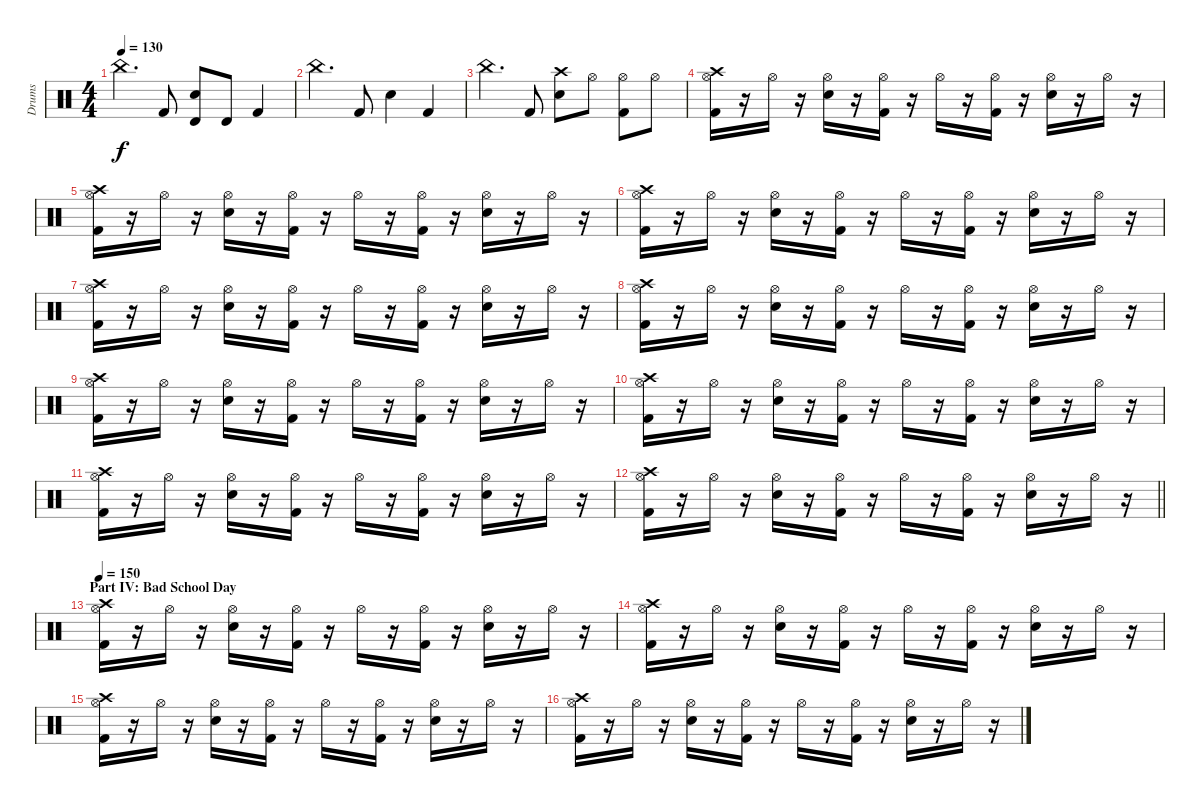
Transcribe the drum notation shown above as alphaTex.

\track ("Drums" "Drums") {instrument percussion}
\staff {score}
\articulation defaults
\ts (4 4)
\tempo 130
\clef neutral
\ks c "China (hit)".4{d dy f} "Kick (hit) 2".8
("Timbale high (hit)" "Snare (hit) 2").8 "Timbale high (hit)".8 "Kick (hit) 2".4 |
"China (hit)".4{d} "Kick (hit) 2".8 "Snare (hit) 2".4 "Kick (hit) 2".4 |
"China (hit)".4{d} "Kick (hit) 2".8 ("Crash high (hit)" "Snare (hit) 2").8 "Hi-Hat (open)".8 ("Hi-Hat (open)" "Kick (hit) 2").8 "Hi-Hat (open)".8 |
("Crash high (hit)" "Hi-Hat (open)" "Kick (hit) 2").16 r.16 "Hi-Hat (open)".16 r.16 ("Hi-Hat (open)" "Snare (hit) 2").16 r.16 ("Hi-Hat (open)" "Kick (hit) 2").16 r.16 "Hi-Hat (open)".16 r.16 ("Hi-Hat (open)" "Kick (hit) 2").16 r.16 ("Hi-Hat (open)" "Snare (hit) 2").16 r.16 "Hi-Hat (open)".16 r.16 |
("Crash high (hit)" "Hi-Hat (open)" "Kick (hit) 2").16 r.16 "Hi-Hat (open)".16 r.16 ("Hi-Hat (open)" "Snare (hit) 2").16 r.16 ("Hi-Hat (open)" "Kick (hit) 2").16 r.16 "Hi-Hat (open)".16 r.16 ("Hi-Hat (open)" "Kick (hit) 2").16 r.16 ("Hi-Hat (open)" "Snare (hit) 2").16 r.16 "Hi-Hat (open)".16 r.16 |
("Crash high (hit)" "Hi-Hat (open)" "Kick (hit) 2").16 r.16 "Hi-Hat (open)".16 r.16 ("Hi-Hat (open)" "Snare (hit) 2").16 r.16 ("Hi-Hat (open)" "Kick (hit) 2").16 r.16 "Hi-Hat (open)".16 r.16 ("Hi-Hat (open)" "Kick (hit) 2").16 r.16 ("Hi-Hat (open)" "Snare (hit) 2").16 r.16 "Hi-Hat (open)".16 r.16 |
("Crash high (hit)" "Hi-Hat (open)" "Kick (hit) 2").16 r.16 "Hi-Hat (open)".16 r.16 ("Hi-Hat (open)" "Snare (hit) 2").16 r.16 ("Hi-Hat (open)" "Kick (hit) 2").16 r.16 "Hi-Hat (open)".16 r.16 ("Hi-Hat (open)" "Kick (hit) 2").16 r.16 ("Hi-Hat (open)" "Snare (hit) 2").16 r.16 "Hi-Hat (open)".16 r.16 |
("Crash high (hit)" "Hi-Hat (open)" "Kick (hit) 2").16 r.16 "Hi-Hat (open)".16 r.16 ("Hi-Hat (open)" "Snare (hit) 2").16 r.16 ("Hi-Hat (open)" "Kick (hit) 2").16 r.16 "Hi-Hat (open)".16 r.16 ("Hi-Hat (open)" "Kick (hit) 2").16 r.16 ("Hi-Hat (open)" "Snare (hit) 2").16 r.16 "Hi-Hat (open)".16 r.16 |
("Crash high (hit)" "Hi-Hat (open)" "Kick (hit) 2").16 r.16 "Hi-Hat (open)".16 r.16 ("Hi-Hat (open)" "Snare (hit) 2").16 r.16 ("Hi-Hat (open)" "Kick (hit) 2").16 r.16 "Hi-Hat (open)".16 r.16 ("Hi-Hat (open)" "Kick (hit) 2").16 r.16 ("Hi-Hat (open)" "Snare (hit) 2").16 r.16 "Hi-Hat (open)".16 r.16 |
("Crash high (hit)" "Hi-Hat (open)" "Kick (hit) 2").16 r.16 "Hi-Hat (open)".16 r.16 ("Hi-Hat (open)" "Snare (hit) 2").16 r.16 ("Hi-Hat (open)" "Kick (hit) 2").16 r.16 "Hi-Hat (open)".16 r.16 ("Hi-Hat (open)" "Kick (hit) 2").16 r.16 ("Hi-Hat (open)" "Snare (hit) 2").16 r.16 "Hi-Hat (open)".16 r.16 |
("Crash high (hit)" "Hi-Hat (open)" "Kick (hit) 2").16 r.16 "Hi-Hat (open)".16 r.16 ("Hi-Hat (open)" "Snare (hit) 2").16 r.16 ("Hi-Hat (open)" "Kick (hit) 2").16 r.16 "Hi-Hat (open)".16 r.16 ("Hi-Hat (open)" "Kick (hit) 2").16 r.16 ("Hi-Hat (open)" "Snare (hit) 2").16 r.16 "Hi-Hat (open)".16 r.16 |
\barLineRight lightlight
("Crash high (hit)" "Hi-Hat (open)" "Kick (hit) 2").16 r.16 "Hi-Hat (open)".16 r.16 ("Hi-Hat (open)" "Snare (hit) 2").16 r.16 ("Hi-Hat (open)" "Kick (hit) 2").16 r.16 "Hi-Hat (open)".16 r.16 ("Hi-Hat (open)" "Kick (hit) 2").16 r.16 ("Hi-Hat (open)" "Snare (hit) 2").16 r.16 "Hi-Hat (open)".16 r.16 |
\section ("" "Part IV: Bad School Day")
\tempo 150
("Crash high (hit)" "Hi-Hat (open)" "Kick (hit) 2").16{volume 0} r.16 "Hi-Hat (open)".16 r.16 ("Hi-Hat (open)" "Snare (hit) 2").16 r.16 ("Hi-Hat (open)" "Kick (hit) 2").16 r.16 "Hi-Hat (open)".16 r.16 ("Hi-Hat (open)" "Kick (hit) 2").16 r.16 ("Hi-Hat (open)" "Snare (hit) 2").16 r.16 "Hi-Hat (open)".16 r.16 |
("Crash high (hit)" "Hi-Hat (open)" "Kick (hit) 2").16 r.16 "Hi-Hat (open)".16 r.16 ("Hi-Hat (open)" "Snare (hit) 2").16 r.16 ("Hi-Hat (open)" "Kick (hit) 2").16 r.16 "Hi-Hat (open)".16 r.16 ("Hi-Hat (open)" "Kick (hit) 2").16 r.16 ("Hi-Hat (open)" "Snare (hit) 2").16 r.16 "Hi-Hat (open)".16 r.16 |
("Crash high (hit)" "Hi-Hat (open)" "Kick (hit) 2").16 r.16 "Hi-Hat (open)".16 r.16 ("Hi-Hat (open)" "Snare (hit) 2").16 r.16 ("Hi-Hat (open)" "Kick (hit) 2").16 r.16 "Hi-Hat (open)".16 r.16 ("Hi-Hat (open)" "Kick (hit) 2").16 r.16 ("Hi-Hat (open)" "Snare (hit) 2").16 r.16 "Hi-Hat (open)".16 r.16 |
("Crash high (hit)" "Hi-Hat (open)" "Kick (hit) 2").16 r.16 "Hi-Hat (open)".16 r.16 ("Hi-Hat (open)" "Snare (hit) 2").16 r.16 ("Hi-Hat (open)" "Kick (hit) 2").16 r.16 "Hi-Hat (open)".16 r.16 ("Hi-Hat (open)" "Kick (hit) 2").16 r.16 ("Hi-Hat (open)" "Snare (hit) 2").16 r.16 "Hi-Hat (open)".16 r.16
